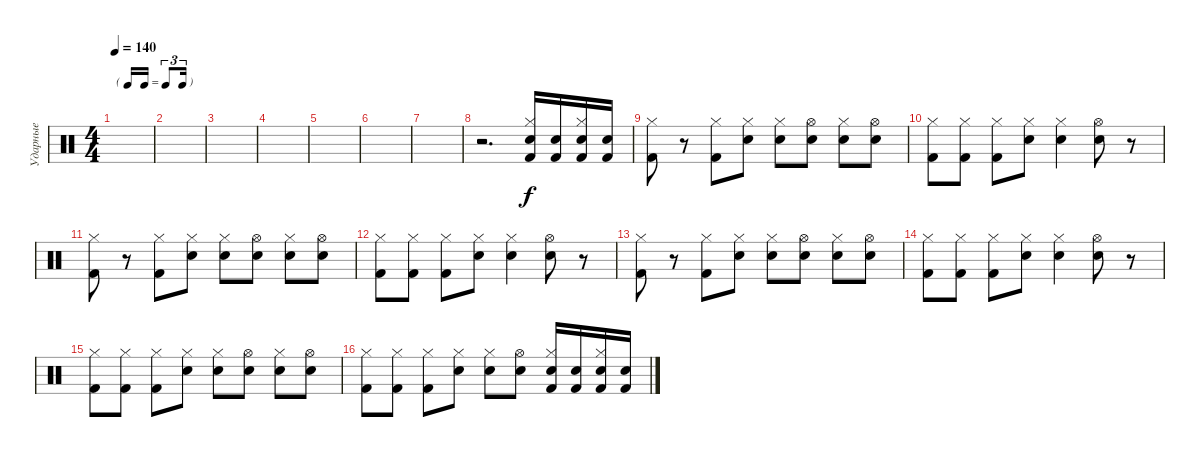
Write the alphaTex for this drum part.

\track ("Ударные" "Ударные") {instrument percussion}
\staff {score}
\articulation defaults
\ts (4 4)
\tf triplet16th
\tempo 140
\clef neutral
\ks c
|
|
|
|
|
|
|
r.2{d} ("Snare (hit) 2" "Hi-Hat (closed)" "Kick (hit) 2").16 ("Snare (hit) 2" "Kick (hit) 2").16 ("Snare (hit) 2" "Hi-Hat (closed)" "Kick (hit) 2").16 ("Snare (hit) 2" "Kick (hit) 2").16 |
("Hi-Hat (closed)" "Kick (hit) 2").8 r.8 ("Hi-Hat (closed)" "Kick (hit) 2").8 ("Hi-Hat (closed)" "Snare (hit) 2").8 ("Hi-Hat (closed)" "Snare (hit) 2").8 ("Hi-Hat (open)" "Snare (hit) 2").8 ("Hi-Hat (closed)" "Snare (hit) 2").8 ("Hi-Hat (open)" "Snare (hit) 2").8 |
("Hi-Hat (closed)" "Kick (hit) 2").8 ("Hi-Hat (closed)" "Kick (hit) 2").8 ("Hi-Hat (closed)" "Kick (hit) 2").8 ("Hi-Hat (closed)" "Snare (hit) 2").8 ("Hi-Hat (closed)" "Snare (hit) 2").4 ("Hi-Hat (open)" "Snare (hit) 2").8 r.8 |
("Hi-Hat (closed)" "Kick (hit) 2").8 r.8 ("Hi-Hat (closed)" "Kick (hit) 2").8 ("Hi-Hat (closed)" "Snare (hit) 2").8 ("Hi-Hat (closed)" "Snare (hit) 2").8 ("Hi-Hat (open)" "Snare (hit) 2").8 ("Hi-Hat (closed)" "Snare (hit) 2").8 ("Hi-Hat (open)" "Snare (hit) 2").8 |
("Hi-Hat (closed)" "Kick (hit) 2").8 ("Hi-Hat (closed)" "Kick (hit) 2").8 ("Hi-Hat (closed)" "Kick (hit) 2").8 ("Hi-Hat (closed)" "Snare (hit) 2").8 ("Hi-Hat (closed)" "Snare (hit) 2").4 ("Hi-Hat (open)" "Snare (hit) 2").8 r.8 |
("Hi-Hat (closed)" "Kick (hit) 2").8 r.8 ("Hi-Hat (closed)" "Kick (hit) 2").8 ("Hi-Hat (closed)" "Snare (hit) 2").8 ("Hi-Hat (closed)" "Snare (hit) 2").8 ("Hi-Hat (open)" "Snare (hit) 2").8 ("Hi-Hat (closed)" "Snare (hit) 2").8 ("Hi-Hat (open)" "Snare (hit) 2").8 |
("Hi-Hat (closed)" "Kick (hit) 2").8 ("Hi-Hat (closed)" "Kick (hit) 2").8 ("Hi-Hat (closed)" "Kick (hit) 2").8 ("Hi-Hat (closed)" "Snare (hit) 2").8 ("Hi-Hat (closed)" "Snare (hit) 2").4 ("Hi-Hat (open)" "Snare (hit) 2").8 r.8 |
("Hi-Hat (closed)" "Kick (hit) 2").8 ("Hi-Hat (closed)" "Kick (hit) 2").8 ("Hi-Hat (closed)" "Kick (hit) 2").8 ("Hi-Hat (closed)" "Snare (hit) 2").8 ("Hi-Hat (closed)" "Snare (hit) 2").8 ("Hi-Hat (open)" "Snare (hit) 2").8 ("Hi-Hat (closed)" "Snare (hit) 2").8 ("Hi-Hat (open)" "Snare (hit) 2").8 |
("Hi-Hat (closed)" "Kick (hit) 2").8 ("Hi-Hat (closed)" "Kick (hit) 2").8 ("Hi-Hat (closed)" "Kick (hit) 2").8 ("Hi-Hat (closed)" "Snare (hit) 2").8 ("Hi-Hat (closed)" "Snare (hit) 2").8 ("Hi-Hat (open)" "Snare (hit) 2").8 ("Snare (hit) 2" "Hi-Hat (closed)" "Kick (hit) 2").16 ("Snare (hit) 2" "Kick (hit) 2").16 ("Snare (hit) 2" "Hi-Hat (closed)" "Kick (hit) 2").16 ("Snare (hit) 2" "Kick (hit) 2").16
